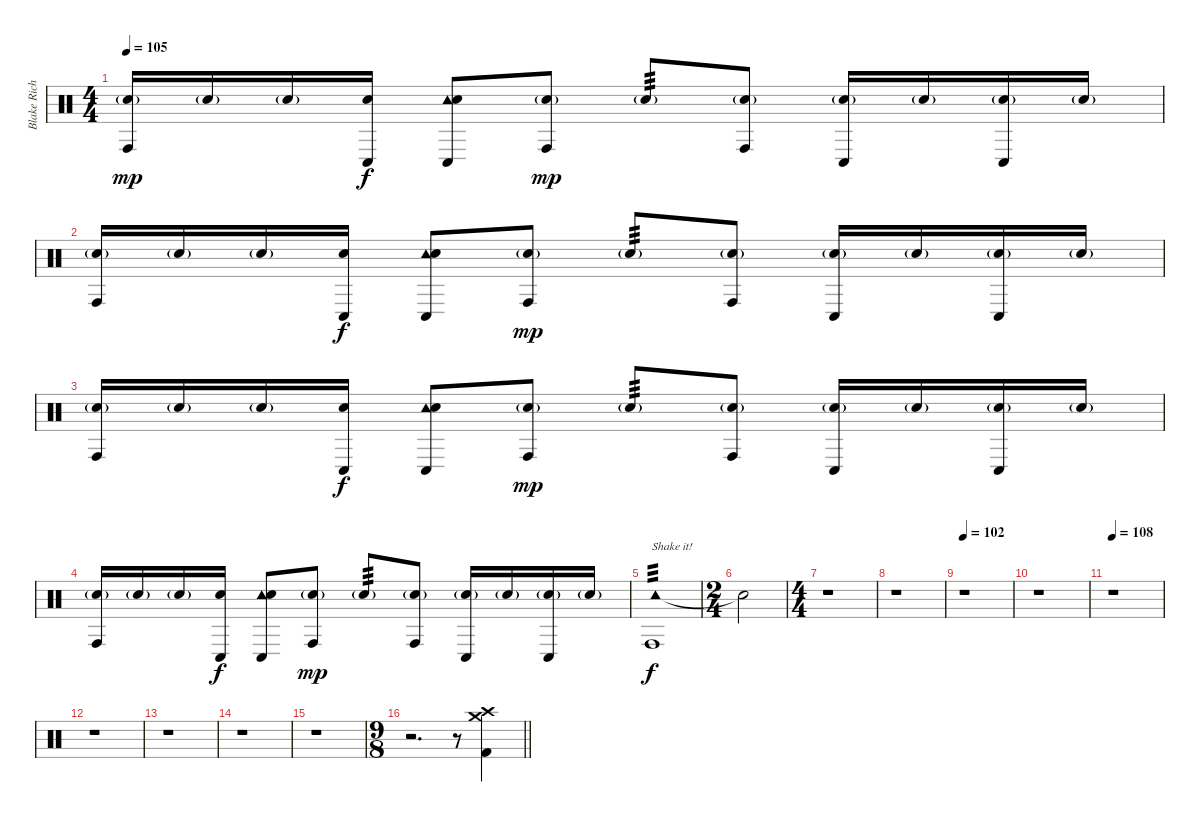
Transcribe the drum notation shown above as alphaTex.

\track ("Blake Richardson" "Blake Rich") {instrument percussion}
\staff {score}
\articulation defaults
\ts (4 4)
\tempo 105
\clef neutral
\ks c
("Electric Snare (hit)"{g} "Conga high (hit)").16{dy mp} "Electric Snare (hit)"{g}.16 "Electric Snare (hit)"{g}.16 ("Electric Snare (hit)" "Conga low (hit)").16{dy f} ("Tambourine (hit)" "Electric Snare (hit)" "Conga low (hit)").8 ("Electric Snare (hit)"{g} "Conga high (hit)").8{dy mp} "Electric Snare (hit)"{g}.8{tp 3} ("Electric Snare (hit)"{g} "Conga high (hit)").8 ("Electric Snare (hit)"{g} "Conga low (hit)").16 "Electric Snare (hit)"{g}.16 ("Electric Snare (hit)"{g} "Conga low (hit)").16 "Electric Snare (hit)"{g}.16 |
("Electric Snare (hit)"{g} "Conga high (hit)").16 "Electric Snare (hit)"{g}.16 "Electric Snare (hit)"{g}.16 ("Electric Snare (hit)" "Conga low (hit)").16{dy f} ("Tambourine (hit)" "Electric Snare (hit)" "Conga low (hit)").8 ("Electric Snare (hit)"{g} "Conga high (hit)").8{dy mp} "Electric Snare (hit)"{g}.8{tp 3} ("Electric Snare (hit)"{g} "Conga high (hit)").8 ("Electric Snare (hit)"{g} "Conga low (hit)").16 "Electric Snare (hit)"{g}.16 ("Electric Snare (hit)"{g} "Conga low (hit)").16 "Electric Snare (hit)"{g}.16 |
("Electric Snare (hit)"{g} "Conga high (hit)").16 "Electric Snare (hit)"{g}.16 "Electric Snare (hit)"{g}.16 ("Electric Snare (hit)" "Conga low (hit)").16{dy f} ("Tambourine (hit)" "Electric Snare (hit)" "Conga low (hit)").8 ("Electric Snare (hit)"{g} "Conga high (hit)").8{dy mp} "Electric Snare (hit)"{g}.8{tp 3} ("Electric Snare (hit)"{g} "Conga high (hit)").8 ("Electric Snare (hit)"{g} "Conga low (hit)").16 "Electric Snare (hit)"{g}.16 ("Electric Snare (hit)"{g} "Conga low (hit)").16 "Electric Snare (hit)"{g}.16 |
("Electric Snare (hit)"{g} "Conga high (hit)").16 "Electric Snare (hit)"{g}.16 "Electric Snare (hit)"{g}.16 ("Electric Snare (hit)" "Conga low (hit)").16{dy f} ("Tambourine (hit)" "Electric Snare (hit)" "Conga low (hit)").8 ("Electric Snare (hit)"{g} "Conga high (hit)").8{dy mp} "Electric Snare (hit)"{g}.8{tp 3} ("Electric Snare (hit)"{g} "Conga high (hit)").8 ("Electric Snare (hit)"{g} "Conga low (hit)").16 "Electric Snare (hit)"{g}.16 ("Electric Snare (hit)"{g} "Conga low (hit)").16 "Electric Snare (hit)"{g}.16 |
("Tambourine (hit)" "Conga high (hit)").1{txt "Shake it!" tp 3 dy f volume 0} |
\ts (2 4)
"Snare (hit)"{t}.2 |
\ts (4 4)
r.1 |
r.1 |
\tempo 102
r.1 |
r.1 |
\tempo 108
r.1 |
r.1 |
r.1 |
r.1 |
r.1 |
\ts (9 8)
\barLineRight lightlight
r.2{d volume 13 balance 8} r.8 ("Crash high (hit)" "Crash medium (hit)" "Kick (hit) 2").4
